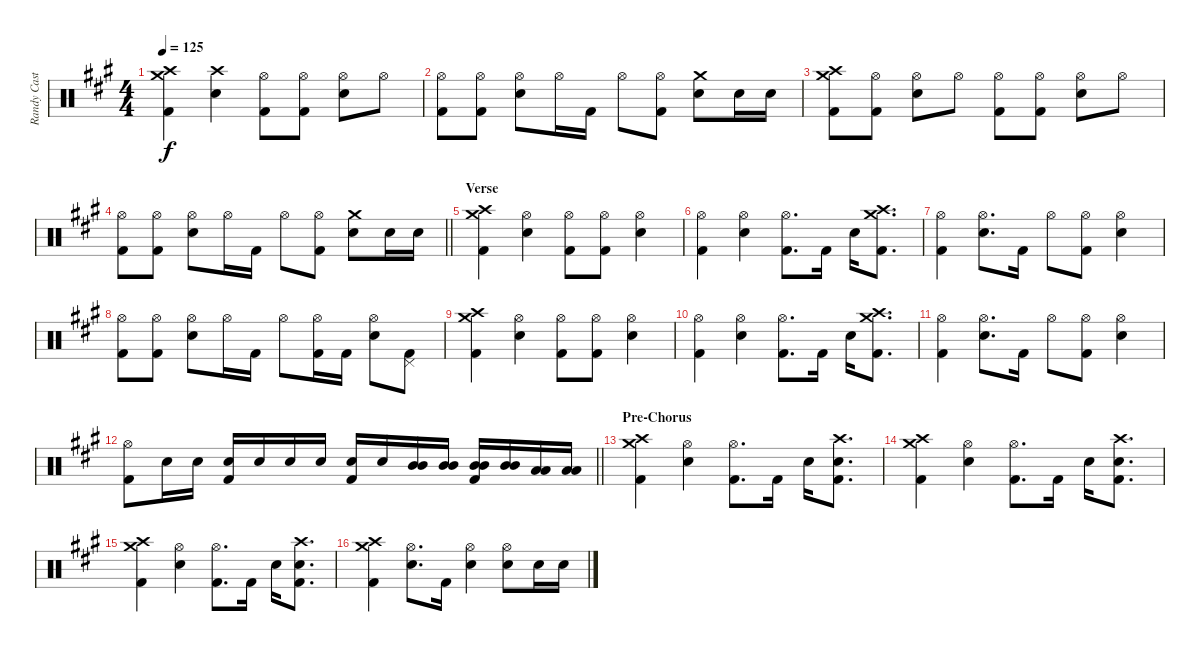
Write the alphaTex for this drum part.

\track ("Randy Castillo - Drums" "Randy Cast") {instrument percussion}
\staff {score}
\articulation defaults
\ts (4 4)
\tempo 125
\clef neutral
\ks a
("Crash medium (hit)" "Crash high (hit)" "Kick (hit) 2").4{dy f} ("Crash high (hit)" "Snare (hit) 2").4 ("Hi-Hat (open)" "Kick (hit) 2").8 ("Hi-Hat (open)" "Kick (hit) 2").8 ("Hi-Hat (open)" "Snare (hit) 2").8 "Hi-Hat (open)".8 |
("Hi-Hat (open)" "Kick (hit) 2").8 ("Hi-Hat (open)" "Kick (hit) 2").8 ("Hi-Hat (open)" "Snare (hit) 2").8 "Hi-Hat (open)".16 "Kick (hit) 2".16 "Hi-Hat (open)".8 ("Hi-Hat (open)" "Kick (hit) 2").8 ("Crash medium (hit)" "Snare (hit) 2").8 "Snare (hit) 2".16 "Snare (hit) 2".16 |
("Crash medium (hit)" "Crash high (hit)" "Kick (hit) 2").8 ("Hi-Hat (open)" "Kick (hit) 2").8 ("Hi-Hat (open)" "Snare (hit) 2").8 "Hi-Hat (open)".8 ("Hi-Hat (open)" "Kick (hit) 2").8 ("Hi-Hat (open)" "Kick (hit) 2").8 ("Hi-Hat (open)" "Snare (hit) 2").8 "Hi-Hat (open)".8 |
\barLineRight lightlight
("Hi-Hat (open)" "Kick (hit) 2").8 ("Hi-Hat (open)" "Kick (hit) 2").8 ("Hi-Hat (open)" "Snare (hit) 2").8 "Hi-Hat (open)".16 "Kick (hit) 2".16 "Hi-Hat (open)".8 ("Hi-Hat (open)" "Kick (hit) 2").8 ("Crash medium (hit)" "Snare (hit) 2").8 "Snare (hit) 2".16 "Snare (hit) 2".16 |
\section ("" "Verse")
("Crash medium (hit)" "Crash high (hit)" "Kick (hit) 2").4 ("Hi-Hat (open)" "Snare (hit) 2").4 ("Hi-Hat (open)" "Kick (hit) 2").8 ("Hi-Hat (open)" "Kick (hit) 2").8 ("Hi-Hat (open)" "Snare (hit) 2").4 |
("Hi-Hat (open)" "Kick (hit) 2").4 ("Hi-Hat (open)" "Snare (hit) 2").4 ("Hi-Hat (open)" "Kick (hit) 2").8{d} "Kick (hit) 2".16 "Snare (hit) 2".16 ("Crash medium (hit)" "Crash high (hit)" "Kick (hit) 2").8{d} |
("Hi-Hat (open)" "Kick (hit) 2").4 ("Hi-Hat (open)" "Snare (hit) 2").8{d} "Kick (hit) 2".16 "Hi-Hat (open)".8 ("Hi-Hat (open)" "Kick (hit) 2").8 ("Hi-Hat (open)" "Snare (hit) 2").4 |
("Hi-Hat (open)" "Kick (hit) 2").8 ("Hi-Hat (open)" "Kick (hit) 2").8 ("Hi-Hat (open)" "Snare (hit) 2").8 "Hi-Hat (open)".16 "Kick (hit) 2".16 "Hi-Hat (open)".8 ("Hi-Hat (open)" "Kick (hit) 2").16 "Kick (hit) 2".16 ("Hi-Hat (open)" "Snare (hit) 2").8 ("Pedal Hi-Hat (hit)" "Kick (hit) 2").8 |
("Crash medium (hit)" "Crash high (hit)" "Kick (hit) 2").4 ("Hi-Hat (open)" "Snare (hit) 2").4 ("Hi-Hat (open)" "Kick (hit) 2").8 ("Hi-Hat (open)" "Kick (hit) 2").8 ("Hi-Hat (open)" "Snare (hit) 2").4 |
("Hi-Hat (open)" "Kick (hit) 2").4 ("Hi-Hat (open)" "Snare (hit) 2").4 ("Hi-Hat (open)" "Kick (hit) 2").8{d} "Kick (hit) 2".16 "Snare (hit) 2".16 ("Crash medium (hit)" "Crash high (hit)" "Kick (hit) 2").8{d} |
("Hi-Hat (open)" "Kick (hit) 2").4 ("Hi-Hat (open)" "Snare (hit) 2").8{d} "Kick (hit) 2".16 "Hi-Hat (open)".8 ("Hi-Hat (open)" "Kick (hit) 2").8 ("Hi-Hat (open)" "Snare (hit) 2").4 |
\barLineRight lightlight
("Hi-Hat (open)" "Kick (hit) 2").8 "Snare (hit) 2".16 "Snare (hit) 2".16 ("Snare (hit) 2" "Kick (hit) 2").16 "Snare (hit) 2".16 "Snare (hit) 2".16 "Snare (hit) 2".16 ("Snare (hit) 2" "Kick (hit) 2").16 "Snare (hit) 2".16 ("Mid Tom (hit)" "Mid Tom (hit)").16 ("Mid Tom (hit)" "Mid Tom (hit)").16 ("Mid Tom (hit)" "Mid Tom (hit)" "Kick (hit) 2").16 ("Mid Tom (hit)" "Mid Tom (hit)").16 ("Low Tom (hit)" "Low Tom (hit)").16 ("Low Tom (hit)" "Low Tom (hit)").16 |
\section ("" "Pre-Chorus")
("Crash medium (hit)" "Crash high (hit)" "Kick (hit) 2").4 ("Hi-Hat (open)" "Snare (hit) 2").4 ("Hi-Hat (open)" "Kick (hit) 2").8{d} "Kick (hit) 2".16 "Snare (hit) 2".16 ("Snare (hit)" "Crash high (hit)" "Kick (hit) 2").8{d} |
("Crash medium (hit)" "Crash high (hit)" "Kick (hit) 2").4 ("Hi-Hat (open)" "Snare (hit) 2").4 ("Hi-Hat (open)" "Kick (hit) 2").8{d} "Kick (hit) 2".16 "Snare (hit) 2".16 ("Snare (hit)" "Crash high (hit)" "Kick (hit) 2").8{d} |
("Crash medium (hit)" "Crash high (hit)" "Kick (hit) 2").4 ("Hi-Hat (open)" "Snare (hit) 2").4 ("Hi-Hat (open)" "Kick (hit) 2").8{d} "Kick (hit) 2".16 "Snare (hit) 2".16 ("Snare (hit)" "Crash high (hit)" "Kick (hit) 2").8{d} |
("Crash medium (hit)" "Crash high (hit)" "Kick (hit) 2").4 ("Hi-Hat (open)" "Snare (hit) 2").8{d} "Kick (hit) 2".16 ("Hi-Hat (open)" "Snare (hit) 2").4 ("Hi-Hat (open)" "Snare (hit) 2").8 "Snare (hit) 2".16 "Snare (hit) 2".16
